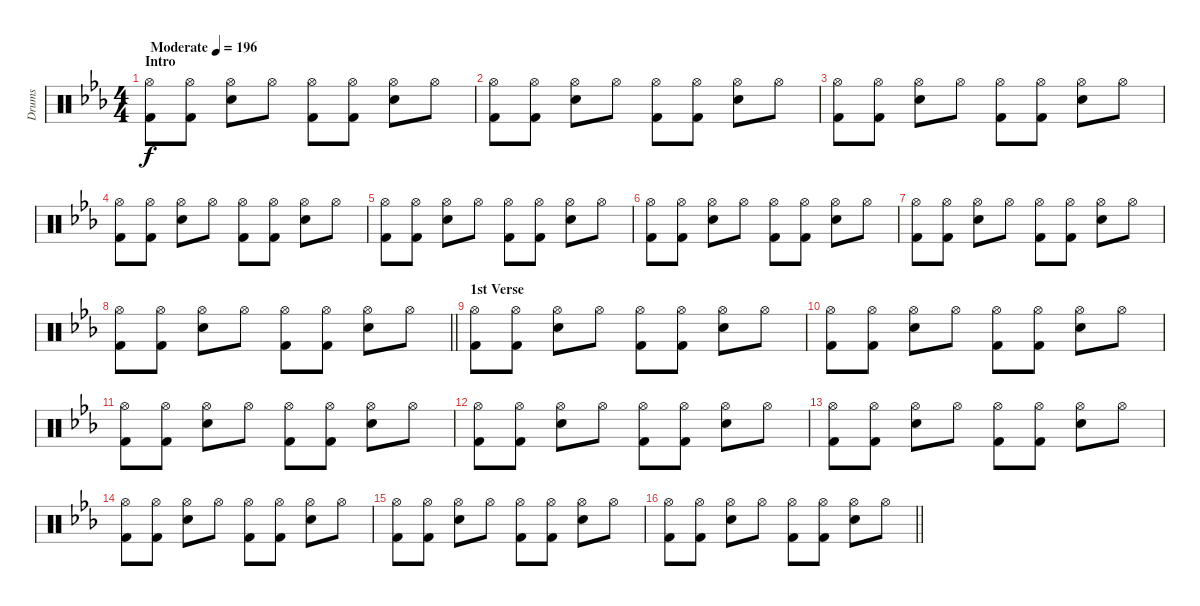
\track ("Drums" "Drums") {instrument percussion}
\staff {score}
\articulation defaults
\ts (4 4)
\section ("" "Intro")
\tempo (196 "Moderate")
\clef neutral
\ks eb
("Hi-Hat (open)" "Kick (hit) 2").8{dy f} ("Hi-Hat (open)" "Kick (hit) 2").8 ("Hi-Hat (open)" "Snare (hit) 2").8 "Hi-Hat (open)".8 ("Hi-Hat (open)" "Kick (hit) 2").8 ("Hi-Hat (open)" "Kick (hit) 2").8 ("Hi-Hat (open)" "Snare (hit) 2").8 "Hi-Hat (open)".8 |
("Hi-Hat (open)" "Kick (hit) 2").8 ("Hi-Hat (open)" "Kick (hit) 2").8 ("Hi-Hat (open)" "Snare (hit) 2").8 "Hi-Hat (open)".8 ("Hi-Hat (open)" "Kick (hit) 2").8 ("Hi-Hat (open)" "Kick (hit) 2").8 ("Hi-Hat (open)" "Snare (hit) 2").8 "Hi-Hat (open)".8 |
("Hi-Hat (open)" "Kick (hit) 2").8 ("Hi-Hat (open)" "Kick (hit) 2").8 ("Hi-Hat (open)" "Snare (hit) 2").8 "Hi-Hat (open)".8 ("Hi-Hat (open)" "Kick (hit) 2").8 ("Hi-Hat (open)" "Kick (hit) 2").8 ("Hi-Hat (open)" "Snare (hit) 2").8 "Hi-Hat (open)".8 |
("Hi-Hat (open)" "Kick (hit) 2").8 ("Hi-Hat (open)" "Kick (hit) 2").8 ("Hi-Hat (open)" "Snare (hit) 2").8 "Hi-Hat (open)".8 ("Hi-Hat (open)" "Kick (hit) 2").8 ("Hi-Hat (open)" "Kick (hit) 2").8 ("Hi-Hat (open)" "Snare (hit) 2").8 "Hi-Hat (open)".8 |
("Hi-Hat (open)" "Kick (hit) 2").8 ("Hi-Hat (open)" "Kick (hit) 2").8 ("Hi-Hat (open)" "Snare (hit) 2").8 "Hi-Hat (open)".8 ("Hi-Hat (open)" "Kick (hit) 2").8 ("Hi-Hat (open)" "Kick (hit) 2").8 ("Hi-Hat (open)" "Snare (hit) 2").8 "Hi-Hat (open)".8 |
("Hi-Hat (open)" "Kick (hit) 2").8 ("Hi-Hat (open)" "Kick (hit) 2").8 ("Hi-Hat (open)" "Snare (hit) 2").8 "Hi-Hat (open)".8 ("Hi-Hat (open)" "Kick (hit) 2").8 ("Hi-Hat (open)" "Kick (hit) 2").8 ("Hi-Hat (open)" "Snare (hit) 2").8 "Hi-Hat (open)".8 |
("Hi-Hat (open)" "Kick (hit) 2").8 ("Hi-Hat (open)" "Kick (hit) 2").8 ("Hi-Hat (open)" "Snare (hit) 2").8 "Hi-Hat (open)".8 ("Hi-Hat (open)" "Kick (hit) 2").8 ("Hi-Hat (open)" "Kick (hit) 2").8 ("Hi-Hat (open)" "Snare (hit) 2").8 "Hi-Hat (open)".8 |
\barLineRight lightlight
("Hi-Hat (open)" "Kick (hit) 2").8 ("Hi-Hat (open)" "Kick (hit) 2").8 ("Hi-Hat (open)" "Snare (hit) 2").8 "Hi-Hat (open)".8 ("Hi-Hat (open)" "Kick (hit) 2").8 ("Hi-Hat (open)" "Kick (hit) 2").8 ("Hi-Hat (open)" "Snare (hit) 2").8 "Hi-Hat (open)".8 |
\section ("" "1st Verse")
("Hi-Hat (open)" "Kick (hit) 2").8 ("Hi-Hat (open)" "Kick (hit) 2").8 ("Hi-Hat (open)" "Snare (hit) 2").8 "Hi-Hat (open)".8 ("Hi-Hat (open)" "Kick (hit) 2").8 ("Hi-Hat (open)" "Kick (hit) 2").8 ("Hi-Hat (open)" "Snare (hit) 2").8 "Hi-Hat (open)".8 |
("Hi-Hat (open)" "Kick (hit) 2").8 ("Hi-Hat (open)" "Kick (hit) 2").8 ("Hi-Hat (open)" "Snare (hit) 2").8 "Hi-Hat (open)".8 ("Hi-Hat (open)" "Kick (hit) 2").8 ("Hi-Hat (open)" "Kick (hit) 2").8 ("Hi-Hat (open)" "Snare (hit) 2").8 "Hi-Hat (open)".8 |
("Hi-Hat (open)" "Kick (hit) 2").8 ("Hi-Hat (open)" "Kick (hit) 2").8 ("Hi-Hat (open)" "Snare (hit) 2").8 "Hi-Hat (open)".8 ("Hi-Hat (open)" "Kick (hit) 2").8 ("Hi-Hat (open)" "Kick (hit) 2").8 ("Hi-Hat (open)" "Snare (hit) 2").8 "Hi-Hat (open)".8 |
("Hi-Hat (open)" "Kick (hit) 2").8 ("Hi-Hat (open)" "Kick (hit) 2").8 ("Hi-Hat (open)" "Snare (hit) 2").8 "Hi-Hat (open)".8 ("Hi-Hat (open)" "Kick (hit) 2").8 ("Hi-Hat (open)" "Kick (hit) 2").8 ("Hi-Hat (open)" "Snare (hit) 2").8 "Hi-Hat (open)".8 |
("Hi-Hat (open)" "Kick (hit) 2").8 ("Hi-Hat (open)" "Kick (hit) 2").8 ("Hi-Hat (open)" "Snare (hit) 2").8 "Hi-Hat (open)".8 ("Hi-Hat (open)" "Kick (hit) 2").8 ("Hi-Hat (open)" "Kick (hit) 2").8 ("Hi-Hat (open)" "Snare (hit) 2").8 "Hi-Hat (open)".8 |
("Hi-Hat (open)" "Kick (hit) 2").8 ("Hi-Hat (open)" "Kick (hit) 2").8 ("Hi-Hat (open)" "Snare (hit) 2").8 "Hi-Hat (open)".8 ("Hi-Hat (open)" "Kick (hit) 2").8 ("Hi-Hat (open)" "Kick (hit) 2").8 ("Hi-Hat (open)" "Snare (hit) 2").8 "Hi-Hat (open)".8 |
("Hi-Hat (open)" "Kick (hit) 2").8 ("Hi-Hat (open)" "Kick (hit) 2").8 ("Hi-Hat (open)" "Snare (hit) 2").8 "Hi-Hat (open)".8 ("Hi-Hat (open)" "Kick (hit) 2").8 ("Hi-Hat (open)" "Kick (hit) 2").8 ("Hi-Hat (open)" "Snare (hit) 2").8 "Hi-Hat (open)".8 |
\barLineRight lightlight
("Hi-Hat (open)" "Kick (hit) 2").8 ("Hi-Hat (open)" "Kick (hit) 2").8 ("Hi-Hat (open)" "Snare (hit) 2").8 "Hi-Hat (open)".8 ("Hi-Hat (open)" "Kick (hit) 2").8 ("Hi-Hat (open)" "Kick (hit) 2").8 ("Hi-Hat (open)" "Snare (hit) 2").8 "Hi-Hat (open)".8
